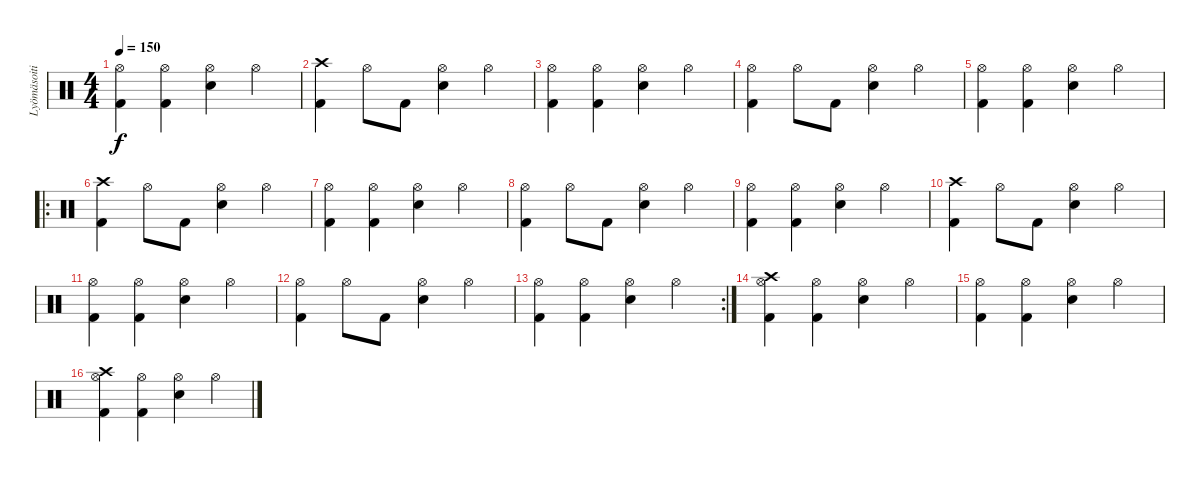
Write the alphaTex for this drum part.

\track ("Lyömäsoitin" "Lyömäsoiti") {instrument percussion}
\staff {score}
\articulation defaults
\ts (4 4)
\tempo 150
\clef neutral
\ks c
("Hi-Hat (open)" "Kick (hit) 2").4{dy f} ("Hi-Hat (open)" "Kick (hit) 2").4 ("Hi-Hat (open)" "Snare (hit) 2").4 "Hi-Hat (open)".4 |
("Crash high (hit)" "Kick (hit) 2").4 "Hi-Hat (open)".8 "Kick (hit) 2".8 ("Hi-Hat (open)" "Snare (hit) 2").4 "Hi-Hat (open)".4 |
("Hi-Hat (open)" "Kick (hit) 2").4 ("Hi-Hat (open)" "Kick (hit) 2").4 ("Hi-Hat (open)" "Snare (hit) 2").4 "Hi-Hat (open)".4 |
("Hi-Hat (open)" "Kick (hit) 2").4 "Hi-Hat (open)".8 "Kick (hit) 2".8 ("Hi-Hat (open)" "Snare (hit) 2").4 "Hi-Hat (open)".4 |
("Hi-Hat (open)" "Kick (hit) 2").4 ("Hi-Hat (open)" "Kick (hit) 2").4 ("Hi-Hat (open)" "Snare (hit) 2").4 "Hi-Hat (open)".4 |
\ro
("Crash high (hit)" "Kick (hit) 2").4 "Hi-Hat (open)".8 "Kick (hit) 2".8 ("Hi-Hat (open)" "Snare (hit) 2").4 "Hi-Hat (open)".4 |
("Hi-Hat (open)" "Kick (hit) 2").4 ("Hi-Hat (open)" "Kick (hit) 2").4 ("Hi-Hat (open)" "Snare (hit) 2").4 "Hi-Hat (open)".4 |
("Hi-Hat (open)" "Kick (hit) 2").4 "Hi-Hat (open)".8 "Kick (hit) 2".8 ("Hi-Hat (open)" "Snare (hit) 2").4 "Hi-Hat (open)".4 |
("Hi-Hat (open)" "Kick (hit) 2").4 ("Hi-Hat (open)" "Kick (hit) 2").4 ("Hi-Hat (open)" "Snare (hit) 2").4 "Hi-Hat (open)".4 |
("Crash high (hit)" "Kick (hit) 2").4 "Hi-Hat (open)".8 "Kick (hit) 2".8 ("Hi-Hat (open)" "Snare (hit) 2").4 "Hi-Hat (open)".4 |
("Hi-Hat (open)" "Kick (hit) 2").4 ("Hi-Hat (open)" "Kick (hit) 2").4 ("Hi-Hat (open)" "Snare (hit) 2").4 "Hi-Hat (open)".4 |
("Hi-Hat (open)" "Kick (hit) 2").4 "Hi-Hat (open)".8 "Kick (hit) 2".8 ("Hi-Hat (open)" "Snare (hit) 2").4 "Hi-Hat (open)".4 |
\rc 2
("Hi-Hat (open)" "Kick (hit) 2").4 ("Hi-Hat (open)" "Kick (hit) 2").4 ("Hi-Hat (open)" "Snare (hit) 2").4 "Hi-Hat (open)".4 |
("Crash high (hit)" "Hi-Hat (open)" "Kick (hit) 2").4 ("Hi-Hat (open)" "Kick (hit) 2").4 ("Hi-Hat (open)" "Snare (hit) 2").4 "Hi-Hat (open)".4 |
("Hi-Hat (open)" "Kick (hit) 2").4 ("Hi-Hat (open)" "Kick (hit) 2").4 ("Hi-Hat (open)" "Snare (hit) 2").4 "Hi-Hat (open)".4 |
("Crash high (hit)" "Hi-Hat (open)" "Kick (hit) 2").4 ("Hi-Hat (open)" "Kick (hit) 2").4 ("Hi-Hat (open)" "Snare (hit) 2").4 "Hi-Hat (open)".4
